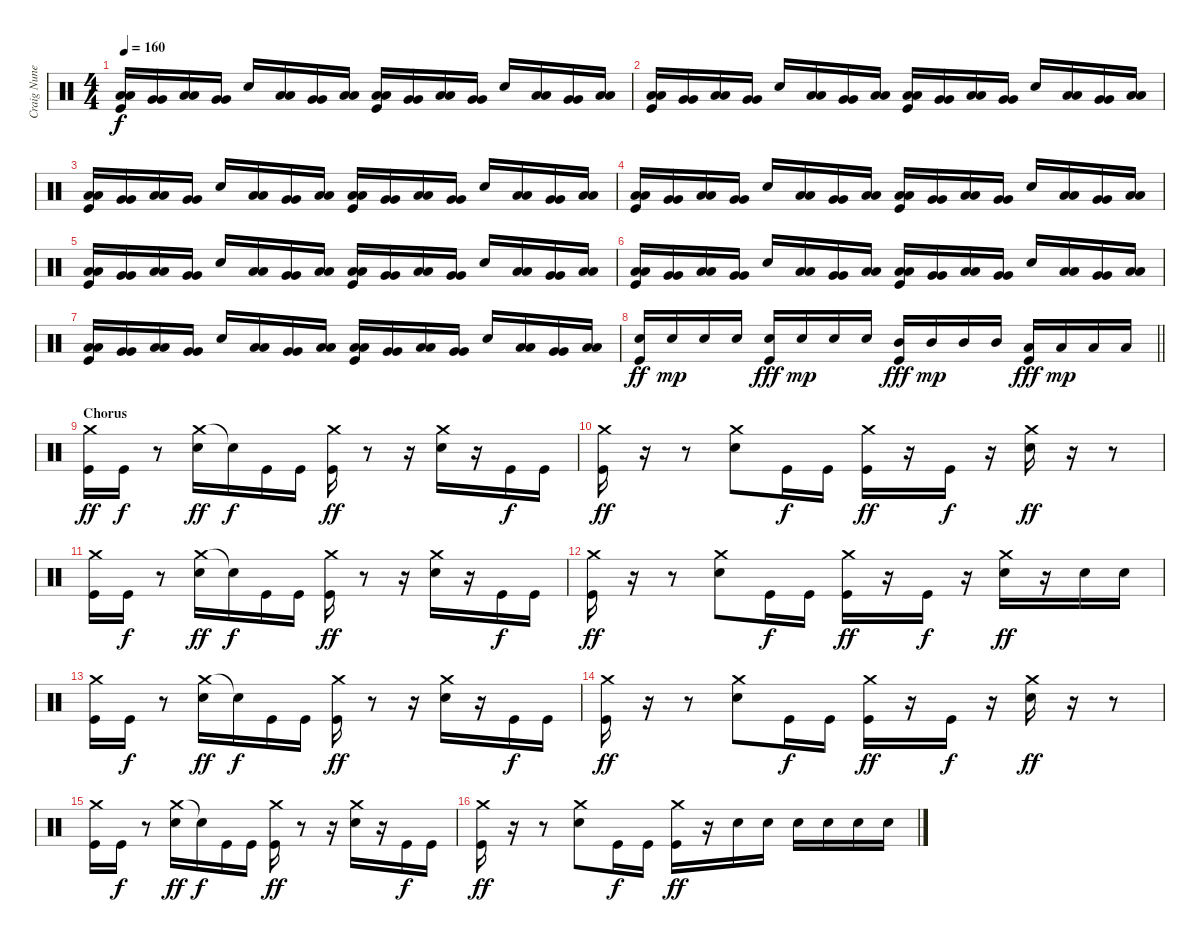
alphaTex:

\track ("Craig Nunenmacher" "Craig Nune") {instrument percussion}
\staff {score}
\articulation defaults
\ts (4 4)
\tempo 160
\clef neutral
\ks c
("Low Tom (hit)" "Low Tom (hit)" "Kick (hit)").16{dy f} ("Very Low Tom (hit)" "Very Low Tom (hit)").16 ("Low Tom (hit)" "Low Tom (hit)").16 ("Very Low Tom (hit)" "Very Low Tom (hit)").16 "Snare (hit) 2".16 ("Low Tom (hit)" "Low Tom (hit)").16 ("Very Low Tom (hit)" "Very Low Tom (hit)").16 ("Low Tom (hit)" "Low Tom (hit)").16 ("Low Tom (hit)" "Low Tom (hit)" "Kick (hit)").16 ("Very Low Tom (hit)" "Very Low Tom (hit)").16 ("Low Tom (hit)" "Low Tom (hit)").16 ("Very Low Tom (hit)" "Very Low Tom (hit)").16 "Snare (hit) 2".16 ("Low Tom (hit)" "Low Tom (hit)").16 ("Very Low Tom (hit)" "Very Low Tom (hit)").16 ("Low Tom (hit)" "Low Tom (hit)").16 |
("Low Tom (hit)" "Low Tom (hit)" "Kick (hit)").16 ("Very Low Tom (hit)" "Very Low Tom (hit)").16 ("Low Tom (hit)" "Low Tom (hit)").16 ("Very Low Tom (hit)" "Very Low Tom (hit)").16 "Snare (hit) 2".16 ("Low Tom (hit)" "Low Tom (hit)").16 ("Very Low Tom (hit)" "Very Low Tom (hit)").16 ("Low Tom (hit)" "Low Tom (hit)").16 ("Low Tom (hit)" "Low Tom (hit)" "Kick (hit)").16 ("Very Low Tom (hit)" "Very Low Tom (hit)").16 ("Low Tom (hit)" "Low Tom (hit)").16 ("Very Low Tom (hit)" "Very Low Tom (hit)").16 "Snare (hit) 2".16 ("Low Tom (hit)" "Low Tom (hit)").16 ("Very Low Tom (hit)" "Very Low Tom (hit)").16 ("Low Tom (hit)" "Low Tom (hit)").16 |
("Low Tom (hit)" "Low Tom (hit)" "Kick (hit)").16 ("Very Low Tom (hit)" "Very Low Tom (hit)").16 ("Low Tom (hit)" "Low Tom (hit)").16 ("Very Low Tom (hit)" "Very Low Tom (hit)").16 "Snare (hit) 2".16 ("Low Tom (hit)" "Low Tom (hit)").16 ("Very Low Tom (hit)" "Very Low Tom (hit)").16 ("Low Tom (hit)" "Low Tom (hit)").16 ("Low Tom (hit)" "Low Tom (hit)" "Kick (hit)").16 ("Very Low Tom (hit)" "Very Low Tom (hit)").16 ("Low Tom (hit)" "Low Tom (hit)").16 ("Very Low Tom (hit)" "Very Low Tom (hit)").16 "Snare (hit) 2".16 ("Low Tom (hit)" "Low Tom (hit)").16 ("Very Low Tom (hit)" "Very Low Tom (hit)").16 ("Low Tom (hit)" "Low Tom (hit)").16 |
("Low Tom (hit)" "Low Tom (hit)" "Kick (hit)").16 ("Very Low Tom (hit)" "Very Low Tom (hit)").16 ("Low Tom (hit)" "Low Tom (hit)").16 ("Very Low Tom (hit)" "Very Low Tom (hit)").16 "Snare (hit) 2".16 ("Low Tom (hit)" "Low Tom (hit)").16 ("Very Low Tom (hit)" "Very Low Tom (hit)").16 ("Low Tom (hit)" "Low Tom (hit)").16 ("Low Tom (hit)" "Low Tom (hit)" "Kick (hit)").16 ("Very Low Tom (hit)" "Very Low Tom (hit)").16 ("Low Tom (hit)" "Low Tom (hit)").16 ("Very Low Tom (hit)" "Very Low Tom (hit)").16 "Snare (hit) 2".16 ("Low Tom (hit)" "Low Tom (hit)").16 ("Very Low Tom (hit)" "Very Low Tom (hit)").16 ("Low Tom (hit)" "Low Tom (hit)").16 |
("Low Tom (hit)" "Low Tom (hit)" "Kick (hit)").16 ("Very Low Tom (hit)" "Very Low Tom (hit)").16 ("Low Tom (hit)" "Low Tom (hit)").16 ("Very Low Tom (hit)" "Very Low Tom (hit)").16 "Snare (hit) 2".16 ("Low Tom (hit)" "Low Tom (hit)").16 ("Very Low Tom (hit)" "Very Low Tom (hit)").16 ("Low Tom (hit)" "Low Tom (hit)").16 ("Low Tom (hit)" "Low Tom (hit)" "Kick (hit)").16 ("Very Low Tom (hit)" "Very Low Tom (hit)").16 ("Low Tom (hit)" "Low Tom (hit)").16 ("Very Low Tom (hit)" "Very Low Tom (hit)").16 "Snare (hit) 2".16 ("Low Tom (hit)" "Low Tom (hit)").16 ("Very Low Tom (hit)" "Very Low Tom (hit)").16 ("Low Tom (hit)" "Low Tom (hit)").16 |
("Low Tom (hit)" "Low Tom (hit)" "Kick (hit)").16 ("Very Low Tom (hit)" "Very Low Tom (hit)").16 ("Low Tom (hit)" "Low Tom (hit)").16 ("Very Low Tom (hit)" "Very Low Tom (hit)").16 "Snare (hit) 2".16 ("Low Tom (hit)" "Low Tom (hit)").16 ("Very Low Tom (hit)" "Very Low Tom (hit)").16 ("Low Tom (hit)" "Low Tom (hit)").16 ("Low Tom (hit)" "Low Tom (hit)" "Kick (hit)").16 ("Very Low Tom (hit)" "Very Low Tom (hit)").16 ("Low Tom (hit)" "Low Tom (hit)").16 ("Very Low Tom (hit)" "Very Low Tom (hit)").16 "Snare (hit) 2".16 ("Low Tom (hit)" "Low Tom (hit)").16 ("Very Low Tom (hit)" "Very Low Tom (hit)").16 ("Low Tom (hit)" "Low Tom (hit)").16 |
("Low Tom (hit)" "Low Tom (hit)" "Kick (hit)").16 ("Very Low Tom (hit)" "Very Low Tom (hit)").16 ("Low Tom (hit)" "Low Tom (hit)").16 ("Very Low Tom (hit)" "Very Low Tom (hit)").16 "Snare (hit) 2".16 ("Low Tom (hit)" "Low Tom (hit)").16 ("Very Low Tom (hit)" "Very Low Tom (hit)").16 ("Low Tom (hit)" "Low Tom (hit)").16 ("Low Tom (hit)" "Low Tom (hit)" "Kick (hit)").16 ("Very Low Tom (hit)" "Very Low Tom (hit)").16 ("Low Tom (hit)" "Low Tom (hit)").16 ("Very Low Tom (hit)" "Very Low Tom (hit)").16 "Snare (hit) 2".16 ("Low Tom (hit)" "Low Tom (hit)").16 ("Very Low Tom (hit)" "Very Low Tom (hit)").16 ("Low Tom (hit)" "Low Tom (hit)").16 |
\barLineRight lightlight
("Snare (hit) 2" "Kick (hit)").16{dy ff} "Snare (hit) 2".16{dy mp} "Snare (hit) 2".16 "Snare (hit) 2".16 ("Snare (hit) 2" "Kick (hit)").16{dy fff} "Snare (hit) 2".16{dy mp} "Snare (hit) 2".16 "Snare (hit) 2".16 ("Mid Tom (hit)" "Kick (hit)").16{dy fff} "Mid Tom (hit)".16{dy mp} "Mid Tom (hit)".16 "Mid Tom (hit)".16 ("Low Tom (hit)" "Kick (hit)").16{dy fff} "Low Tom (hit)".16{dy mp} "Low Tom (hit)".16 "Low Tom (hit)".16 |
\section ("" "Chorus")
("Crash medium (hit)" "Kick (hit)").16{dy ff} "Kick (hit)".16{dy f} r.8 ("Crash medium (hit)" "Snare (hit) 2").16{dy ff} "Snare (hit)"{t}.16{dy f} "Kick (hit)".16 "Kick (hit)".16 ("Crash medium (hit)" "Kick (hit)").16{dy ff} r.8 r.16 ("Crash medium (hit)" "Snare (hit) 2").16 r.16 "Kick (hit)".16{dy f} "Kick (hit)".16 |
("Crash medium (hit)" "Kick (hit)").16{dy ff} r.16 r.8 ("Crash medium (hit)" "Snare (hit) 2").8 "Kick (hit)".16{dy f} "Kick (hit)".16 ("Crash medium (hit)" "Kick (hit)").16{dy ff} r.16 "Kick (hit)".16{dy f} r.16 ("Crash medium (hit)" "Snare (hit) 2").16{dy ff} r.16 r.8 |
("Crash medium (hit)" "Kick (hit)").16 "Kick (hit)".16{dy f} r.8 ("Crash medium (hit)" "Snare (hit) 2").16{dy ff} "Snare (hit)"{t}.16{dy f} "Kick (hit)".16 "Kick (hit)".16 ("Crash medium (hit)" "Kick (hit)").16{dy ff} r.8 r.16 ("Crash medium (hit)" "Snare (hit) 2").16 r.16 "Kick (hit)".16{dy f} "Kick (hit)".16 |
("Crash medium (hit)" "Kick (hit)").16{dy ff} r.16 r.8 ("Crash medium (hit)" "Snare (hit) 2").8 "Kick (hit)".16{dy f} "Kick (hit)".16 ("Crash medium (hit)" "Kick (hit)").16{dy ff} r.16 "Kick (hit)".16{dy f} r.16 ("Crash medium (hit)" "Snare (hit) 2").16{dy ff} r.16 "Snare (hit) 2".16 "Snare (hit) 2".16 |
("Crash medium (hit)" "Kick (hit)").16 "Kick (hit)".16{dy f} r.8 ("Crash medium (hit)" "Snare (hit) 2").16{dy ff} "Snare (hit)"{t}.16{dy f} "Kick (hit)".16 "Kick (hit)".16 ("Crash medium (hit)" "Kick (hit)").16{dy ff} r.8 r.16 ("Crash medium (hit)" "Snare (hit) 2").16 r.16 "Kick (hit)".16{dy f} "Kick (hit)".16 |
("Crash medium (hit)" "Kick (hit)").16{dy ff} r.16 r.8 ("Crash medium (hit)" "Snare (hit) 2").8 "Kick (hit)".16{dy f} "Kick (hit)".16 ("Crash medium (hit)" "Kick (hit)").16{dy ff} r.16 "Kick (hit)".16{dy f} r.16 ("Crash medium (hit)" "Snare (hit) 2").16{dy ff} r.16 r.8 |
("Crash medium (hit)" "Kick (hit)").16 "Kick (hit)".16{dy f} r.8 ("Crash medium (hit)" "Snare (hit) 2").16{dy ff} "Snare (hit)"{t}.16{dy f} "Kick (hit)".16 "Kick (hit)".16 ("Crash medium (hit)" "Kick (hit)").16{dy ff} r.8 r.16 ("Crash medium (hit)" "Snare (hit) 2").16 r.16 "Kick (hit)".16{dy f} "Kick (hit)".16 |
("Crash medium (hit)" "Kick (hit)").16{dy ff} r.16 r.8 ("Crash medium (hit)" "Snare (hit) 2").8 "Kick (hit)".16{dy f} "Kick (hit)".16 ("Crash medium (hit)" "Kick (hit)").16{dy ff} r.16 "Snare (hit) 2".16 "Snare (hit) 2".16 "Snare (hit) 2".16 "Snare (hit) 2".16 "Snare (hit) 2".16 "Snare (hit) 2".16
